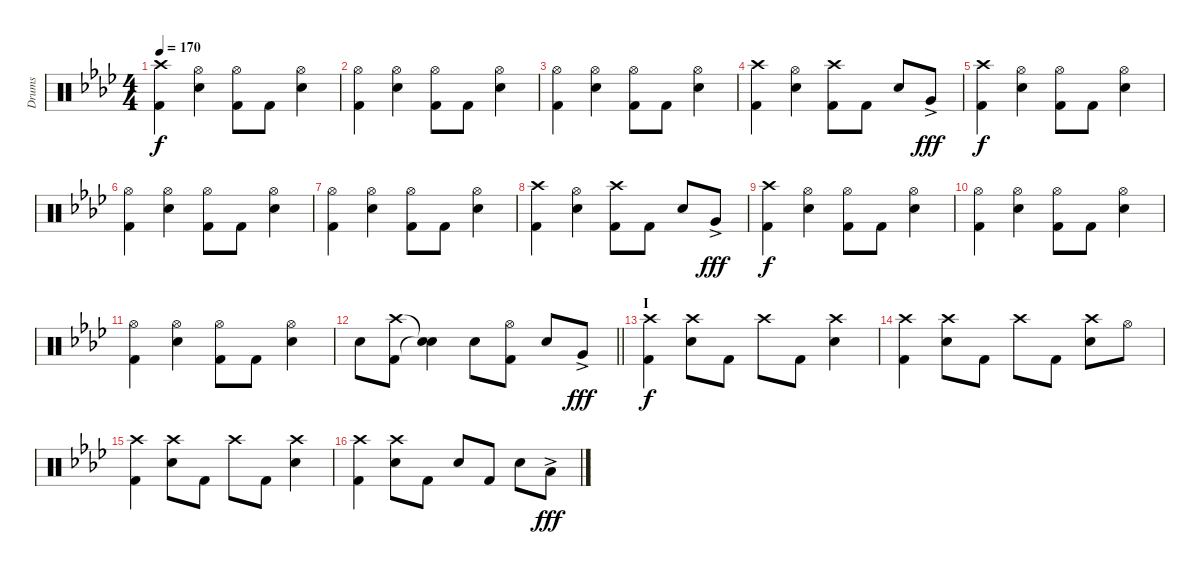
\track ("Drums" "Drums") {instrument percussion}
\staff {score}
\articulation defaults
\ts (4 4)
\tempo 170
\clef neutral
\ks ab
("Crash high (hit)" "Kick (hit) 2").4{dy f} ("Hi-Hat (open)" "Snare (hit) 2").4 ("Hi-Hat (open)" "Kick (hit) 2").8 "Kick (hit) 2".8 ("Hi-Hat (open)" "Snare (hit) 2").4 |
("Hi-Hat (open)" "Kick (hit) 2").4 ("Hi-Hat (open)" "Snare (hit) 2").4 ("Hi-Hat (open)" "Kick (hit) 2").8 "Kick (hit) 2".8 ("Hi-Hat (open)" "Snare (hit) 2").4 |
("Hi-Hat (open)" "Kick (hit) 2").4 ("Hi-Hat (open)" "Snare (hit) 2").4 ("Hi-Hat (open)" "Kick (hit) 2").8 "Kick (hit) 2".8 ("Hi-Hat (open)" "Snare (hit) 2").4 |
("Crash high (hit)" "Kick (hit) 2").4 ("Hi-Hat (open)" "Snare (hit) 2").4 ("Crash high (hit)" "Kick (hit) 2").8 "Kick (hit) 2".8 "Snare (hit) 2".8 "Very Low Tom (hit)"{ac}.8{dy fff} |
("Crash high (hit)" "Kick (hit) 2").4{dy f} ("Hi-Hat (open)" "Snare (hit) 2").4 ("Hi-Hat (open)" "Kick (hit) 2").8 "Kick (hit) 2".8 ("Hi-Hat (open)" "Snare (hit) 2").4 |
("Hi-Hat (open)" "Kick (hit) 2").4 ("Hi-Hat (open)" "Snare (hit) 2").4 ("Hi-Hat (open)" "Kick (hit) 2").8 "Kick (hit) 2".8 ("Hi-Hat (open)" "Snare (hit) 2").4 |
("Hi-Hat (open)" "Kick (hit) 2").4 ("Hi-Hat (open)" "Snare (hit) 2").4 ("Hi-Hat (open)" "Kick (hit) 2").8 "Kick (hit) 2".8 ("Hi-Hat (open)" "Snare (hit) 2").4 |
("Crash high (hit)" "Kick (hit) 2").4 ("Hi-Hat (open)" "Snare (hit) 2").4 ("Crash high (hit)" "Kick (hit) 2").8 "Kick (hit) 2".8 "Snare (hit) 2".8 "Very Low Tom (hit)"{ac}.8{dy fff} |
("Crash high (hit)" "Kick (hit) 2").4{dy f} ("Hi-Hat (open)" "Snare (hit) 2").4 ("Hi-Hat (open)" "Kick (hit) 2").8 "Kick (hit) 2".8 ("Hi-Hat (open)" "Snare (hit) 2").4 |
("Hi-Hat (open)" "Kick (hit) 2").4 ("Hi-Hat (open)" "Snare (hit) 2").4 ("Hi-Hat (open)" "Kick (hit) 2").8 "Kick (hit) 2".8 ("Hi-Hat (open)" "Snare (hit) 2").4 |
("Hi-Hat (open)" "Kick (hit) 2").4 ("Hi-Hat (open)" "Snare (hit) 2").4 ("Hi-Hat (open)" "Kick (hit) 2").8 "Kick (hit) 2".8 ("Hi-Hat (open)" "Snare (hit) 2").4 |
\barLineRight lightlight "Snare (hit) 2".8
("Crash high (hit)" "Kick (hit) 2").8 ("Snare (hit)"{t} "Snare (hit)"{t}).4 "Snare (hit) 2".8 ("Hi-Hat (open)" "Kick (hit) 2").8 "Snare (hit) 2".8 "Very Low Tom (hit)"{ac}.8{dy fff} |
\section ("" "I")
("Crash high (hit)" "Kick (hit) 2").4{dy f} ("Crash high (hit)" "Snare (hit) 2").8 "Kick (hit) 2".8 "Crash high (hit)".8 "Kick (hit) 2".8 ("Crash high (hit)" "Snare (hit) 2").4 |
("Crash high (hit)" "Kick (hit) 2").4 ("Crash high (hit)" "Snare (hit) 2").8 "Kick (hit) 2".8 "Crash high (hit)".8 "Kick (hit) 2".8 ("Crash high (hit)" "Snare (hit) 2").8 "Hi-Hat (open)".8 |
("Crash high (hit)" "Kick (hit) 2").4 ("Crash high (hit)" "Snare (hit) 2").8 "Kick (hit) 2".8 "Crash high (hit)".8 "Kick (hit) 2".8 ("Crash high (hit)" "Snare (hit) 2").4 |
("Crash high (hit)" "Kick (hit) 2").4 ("Crash high (hit)" "Snare (hit) 2").8 "Kick (hit) 2".8 "Snare (hit) 2".8 "Kick (hit) 2".8 "Snare (hit) 2".8 "Low Tom (hit)"{ac}.8{dy fff}
